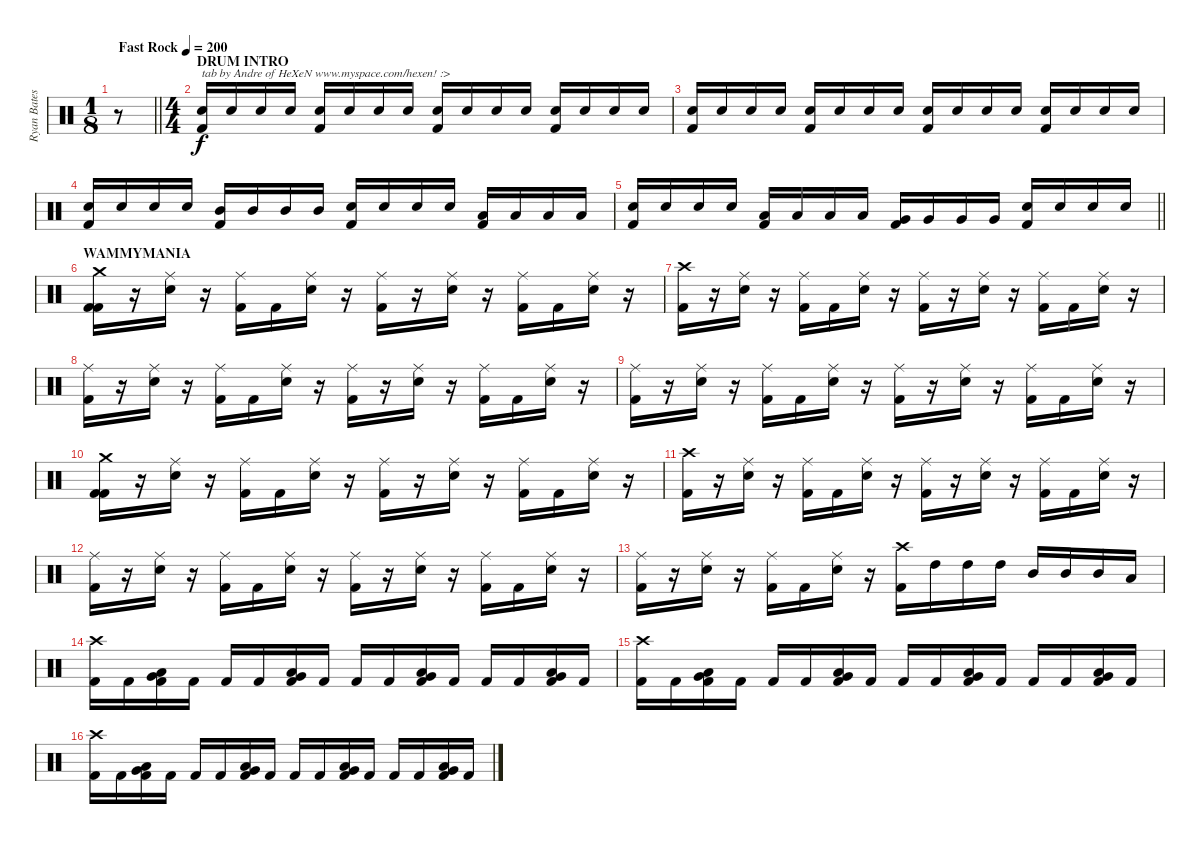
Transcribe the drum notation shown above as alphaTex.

\track ("Ryan Bates" "Ryan Bates") {instrument percussion}
\staff {score}
\articulation defaults
\ts (1 8)
\tempo (200 "Fast Rock")
\clef neutral
\barLineRight lightlight
\ks c
r.8{dy f} |
\ts (4 4)
\section ("" "DRUM INTRO")
("Electric Snare (hit)" "Kick (hit) 2").16{txt "tab by Andre of HeXeN www.myspace.com/hexen! :>"} "Electric Snare (hit)".16 "Electric Snare (hit)".16 "Electric Snare (hit)".16 ("Electric Snare (hit)" "Kick (hit) 2").16 "Electric Snare (hit)".16 "Electric Snare (hit)".16 "Electric Snare (hit)".16 ("Electric Snare (hit)" "Kick (hit) 2").16 "Electric Snare (hit)".16 "Electric Snare (hit)".16 "Electric Snare (hit)".16 ("Electric Snare (hit)" "Kick (hit) 2").16 "Electric Snare (hit)".16 "Electric Snare (hit)".16 "Electric Snare (hit)".16 |
("Electric Snare (hit)" "Kick (hit) 2").16 "Electric Snare (hit)".16 "Electric Snare (hit)".16 "Electric Snare (hit)".16 ("Electric Snare (hit)" "Kick (hit) 2").16 "Electric Snare (hit)".16 "Electric Snare (hit)".16 "Electric Snare (hit)".16 ("Electric Snare (hit)" "Kick (hit) 2").16 "Electric Snare (hit)".16 "Electric Snare (hit)".16 "Electric Snare (hit)".16 ("Electric Snare (hit)" "Kick (hit) 2").16 "Electric Snare (hit)".16 "Electric Snare (hit)".16 "Electric Snare (hit)".16 |
("Electric Snare (hit)" "Kick (hit) 2").16 "Electric Snare (hit)".16 "Electric Snare (hit)".16 "Electric Snare (hit)".16 ("Mid Tom (hit)" "Kick (hit) 2").16 "Mid Tom (hit)".16 "Mid Tom (hit)".16 "Mid Tom (hit)".16 ("Electric Snare (hit)" "Kick (hit) 2").16 "Electric Snare (hit)".16 "Electric Snare (hit)".16 "Electric Snare (hit)".16 ("Low Tom (hit)" "Kick (hit) 2").16 "Low Tom (hit)".16 "Low Tom (hit)".16 "Low Tom (hit)".16 |
\barLineRight lightlight
("Electric Snare (hit)" "Kick (hit) 2").16 "Electric Snare (hit)".16 "Electric Snare (hit)".16 "Electric Snare (hit)".16 ("Low Tom (hit)" "Kick (hit) 2").16 "Low Tom (hit)".16 "Low Tom (hit)".16 "Low Tom (hit)".16 ("Very Low Tom (hit)" "Kick (hit) 2").16 "Very Low Tom (hit)".16 "Very Low Tom (hit)".16 "Very Low Tom (hit)".16 ("Electric Snare (hit)" "Kick (hit) 2").16 "Electric Snare (hit)".16 "Electric Snare (hit)".16 "Electric Snare (hit)".16 |
\section ("" "WAMMYMANIA")
("Crash medium (hit)" "Kick (hit) 2" "Kick (hit) 2").16 r.16 ("Ride (middle)" "Electric Snare (hit)").16 r.16 ("Ride (middle)" "Kick (hit) 2").16 "Kick (hit) 2".16 ("Ride (middle)" "Electric Snare (hit)").16 r.16 ("Ride (middle)" "Kick (hit) 2").16 r.16 ("Ride (middle)" "Electric Snare (hit)").16 r.16 ("Ride (middle)" "Kick (hit) 2").16 "Kick (hit) 2".16 ("Ride (middle)" "Electric Snare (hit)").16 r.16 |
("Crash high (hit)" "Kick (hit) 2").16 r.16 ("Ride (middle)" "Electric Snare (hit)").16 r.16 ("Ride (middle)" "Kick (hit) 2").16 "Kick (hit) 2".16 ("Ride (middle)" "Electric Snare (hit)").16 r.16 ("Ride (middle)" "Kick (hit) 2").16 r.16 ("Ride (middle)" "Electric Snare (hit)").16 r.16 ("Ride (middle)" "Kick (hit) 2").16 "Kick (hit) 2".16 ("Ride (middle)" "Electric Snare (hit)").16 r.16 |
("Ride (middle)" "Kick (hit) 2").16 r.16 ("Ride (middle)" "Electric Snare (hit)").16 r.16 ("Ride (middle)" "Kick (hit) 2").16 "Kick (hit) 2".16 ("Ride (middle)" "Electric Snare (hit)").16 r.16 ("Ride (middle)" "Kick (hit) 2").16 r.16 ("Ride (middle)" "Electric Snare (hit)").16 r.16 ("Ride (middle)" "Kick (hit) 2").16 "Kick (hit) 2".16 ("Ride (middle)" "Electric Snare (hit)").16 r.16 |
("Ride (middle)" "Kick (hit) 2").16 r.16 ("Ride (middle)" "Electric Snare (hit)").16 r.16 ("Ride (middle)" "Kick (hit) 2").16 "Kick (hit) 2".16 ("Ride (middle)" "Electric Snare (hit)").16 r.16 ("Ride (middle)" "Kick (hit) 2").16 r.16 ("Ride (middle)" "Electric Snare (hit)").16 r.16 ("Ride (middle)" "Kick (hit) 2").16 "Kick (hit) 2".16 ("Ride (middle)" "Electric Snare (hit)").16 r.16 |
("Crash medium (hit)" "Kick (hit) 2" "Kick (hit) 2").16 r.16 ("Ride (middle)" "Electric Snare (hit)").16 r.16 ("Ride (middle)" "Kick (hit) 2").16 "Kick (hit) 2".16 ("Ride (middle)" "Electric Snare (hit)").16 r.16 ("Ride (middle)" "Kick (hit) 2").16 r.16 ("Ride (middle)" "Electric Snare (hit)").16 r.16 ("Ride (middle)" "Kick (hit) 2").16 "Kick (hit) 2".16 ("Ride (middle)" "Electric Snare (hit)").16 r.16 |
("Crash high (hit)" "Kick (hit) 2").16 r.16 ("Ride (middle)" "Electric Snare (hit)").16 r.16 ("Ride (middle)" "Kick (hit) 2").16 "Kick (hit) 2".16 ("Ride (middle)" "Electric Snare (hit)").16 r.16 ("Ride (middle)" "Kick (hit) 2").16 r.16 ("Ride (middle)" "Electric Snare (hit)").16 r.16 ("Ride (middle)" "Kick (hit) 2").16 "Kick (hit) 2".16 ("Ride (middle)" "Electric Snare (hit)").16 r.16 |
("Ride (middle)" "Kick (hit) 2").16 r.16 ("Ride (middle)" "Electric Snare (hit)").16 r.16 ("Ride (middle)" "Kick (hit) 2").16 "Kick (hit) 2".16 ("Ride (middle)" "Electric Snare (hit)").16 r.16 ("Ride (middle)" "Kick (hit) 2").16 r.16 ("Ride (middle)" "Electric Snare (hit)").16 r.16 ("Ride (middle)" "Kick (hit) 2").16 "Kick (hit) 2".16 ("Ride (middle)" "Electric Snare (hit)").16 r.16 |
("Ride (middle)" "Kick (hit) 2").16 r.16 ("Ride (middle)" "Electric Snare (hit)").16 r.16 ("Ride (middle)" "Kick (hit) 2").16 "Kick (hit) 2".16 ("Ride (middle)" "Electric Snare (hit)").16 r.16 ("Crash high (hit)" "Kick (hit) 2").16 "High Tom (hit)".16 "High Tom (hit)".16 "High Tom (hit)".16 "Mid Tom (hit)".16 "Mid Tom (hit)".16 "Mid Tom (hit)".16 "Low Tom (hit)".16 |
("Crash high (hit)" "Kick (hit) 2").16 "Kick (hit) 2".16 ("Low Tom (hit)" "Very Low Tom (hit)" "Kick (hit) 2").16 "Kick (hit) 2".16 "Kick (hit) 2".16 "Kick (hit) 2".16 ("Low Tom (hit)" "Very Low Tom (hit)" "Kick (hit) 2").16 "Kick (hit) 2".16 "Kick (hit) 2".16 "Kick (hit) 2".16 ("Low Tom (hit)" "Very Low Tom (hit)" "Kick (hit) 2").16 "Kick (hit) 2".16 "Kick (hit) 2".16 "Kick (hit) 2".16 ("Low Tom (hit)" "Very Low Tom (hit)" "Kick (hit) 2").16 "Kick (hit) 2".16 |
("Crash high (hit)" "Kick (hit) 2").16 "Kick (hit) 2".16 ("Low Tom (hit)" "Very Low Tom (hit)" "Kick (hit) 2").16 "Kick (hit) 2".16 "Kick (hit) 2".16 "Kick (hit) 2".16 ("Low Tom (hit)" "Very Low Tom (hit)" "Kick (hit) 2").16 "Kick (hit) 2".16 "Kick (hit) 2".16 "Kick (hit) 2".16 ("Low Tom (hit)" "Very Low Tom (hit)" "Kick (hit) 2").16 "Kick (hit) 2".16 "Kick (hit) 2".16 "Kick (hit) 2".16 ("Low Tom (hit)" "Very Low Tom (hit)" "Kick (hit) 2").16 "Kick (hit) 2".16 |
("Crash high (hit)" "Kick (hit) 2").16 "Kick (hit) 2".16 ("Low Tom (hit)" "Very Low Tom (hit)" "Kick (hit) 2").16 "Kick (hit) 2".16 "Kick (hit) 2".16 "Kick (hit) 2".16 ("Low Tom (hit)" "Very Low Tom (hit)" "Kick (hit) 2").16 "Kick (hit) 2".16 "Kick (hit) 2".16 "Kick (hit) 2".16 ("Low Tom (hit)" "Very Low Tom (hit)" "Kick (hit) 2").16 "Kick (hit) 2".16 "Kick (hit) 2".16 "Kick (hit) 2".16 ("Low Tom (hit)" "Very Low Tom (hit)" "Kick (hit) 2").16 "Kick (hit) 2".16
